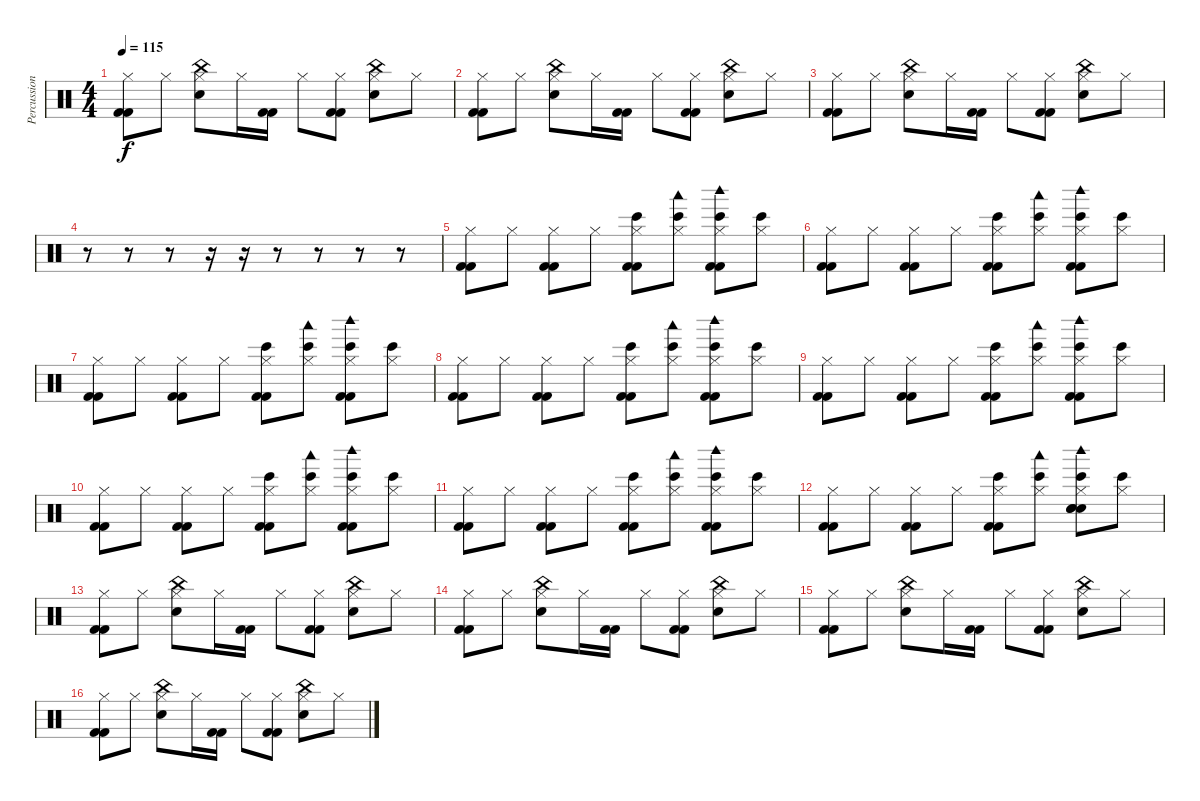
\track ("Percussion" "Percussion") {instrument percussion}
\staff {score}
\articulation defaults
\ts (4 4)
\tempo 115
\clef neutral
\ks c
("Hi-Hat (closed)" "Kick (hit) 2" "Kick (hit) 2").8{dy f} "Hi-Hat (closed)".8 ("Hi-Hat (closed)" "Electric Snare (hit)" "China (hit)").8 "Hi-Hat (closed)".16 ("Kick (hit) 2" "Kick (hit) 2").16 "Hi-Hat (closed)".8 ("Hi-Hat (closed)" "Kick (hit) 2" "Kick (hit) 2").8 ("Hi-Hat (closed)" "Electric Snare (hit)" "China (hit)").8 "Hi-Hat (closed)".8 |
("Hi-Hat (closed)" "Kick (hit) 2" "Kick (hit) 2").8 "Hi-Hat (closed)".8 ("Hi-Hat (closed)" "Electric Snare (hit)" "China (hit)").8 "Hi-Hat (closed)".16 ("Kick (hit) 2" "Kick (hit) 2").16 "Hi-Hat (closed)".8 ("Hi-Hat (closed)" "Kick (hit) 2" "Kick (hit) 2").8 ("Hi-Hat (closed)" "Electric Snare (hit)" "China (hit)").8 "Hi-Hat (closed)".8 |
("Hi-Hat (closed)" "Kick (hit) 2" "Kick (hit) 2").8 "Hi-Hat (closed)".8 ("Hi-Hat (closed)" "Electric Snare (hit)" "China (hit)").8 "Hi-Hat (closed)".16 ("Kick (hit) 2" "Kick (hit) 2").16 "Hi-Hat (closed)".8 ("Hi-Hat (closed)" "Kick (hit) 2" "Kick (hit) 2").8 ("Hi-Hat (closed)" "Electric Snare (hit)" "China (hit)").8 "Hi-Hat (closed)".8 |
r.8 r.8 r.8 r.16 r.16 r.8 r.8 r.8 r.8 |
("Hi-Hat (closed)" "Kick (hit) 2" "Kick (hit) 2").8 "Hi-Hat (closed)".8 ("Hi-Hat (closed)" "Kick (hit) 2" "Kick (hit) 2").8 "Hi-Hat (closed)".8 ("Hi-Hat (closed)" "Kick (hit) 2" "Kick (hit) 2" "Bongo High (hit)").8 ("Hi-Hat (closed)" "Bongo High (hit)" "Woodblock low (hit)").8 ("Hi-Hat (closed)" "Kick (hit) 2" "Kick (hit) 2" "Bongo High (hit)" "Woodblock high (hit)").8 ("Hi-Hat (closed)" "Bongo High (hit)").8 |
("Hi-Hat (closed)" "Kick (hit) 2" "Kick (hit) 2").8 "Hi-Hat (closed)".8 ("Hi-Hat (closed)" "Kick (hit) 2" "Kick (hit) 2").8 "Hi-Hat (closed)".8 ("Hi-Hat (closed)" "Kick (hit) 2" "Kick (hit) 2" "Bongo High (hit)").8 ("Hi-Hat (closed)" "Bongo High (hit)" "Woodblock low (hit)").8 ("Hi-Hat (closed)" "Kick (hit) 2" "Kick (hit) 2" "Bongo High (hit)" "Woodblock high (hit)").8 ("Hi-Hat (closed)" "Bongo High (hit)").8 |
("Hi-Hat (closed)" "Kick (hit) 2" "Kick (hit) 2").8 "Hi-Hat (closed)".8 ("Hi-Hat (closed)" "Kick (hit) 2" "Kick (hit) 2").8 "Hi-Hat (closed)".8 ("Hi-Hat (closed)" "Kick (hit) 2" "Kick (hit) 2" "Bongo High (hit)").8 ("Hi-Hat (closed)" "Bongo High (hit)" "Woodblock low (hit)").8 ("Hi-Hat (closed)" "Kick (hit) 2" "Kick (hit) 2" "Bongo High (hit)" "Woodblock high (hit)").8 ("Hi-Hat (closed)" "Bongo High (hit)").8 |
("Hi-Hat (closed)" "Kick (hit) 2" "Kick (hit) 2").8 "Hi-Hat (closed)".8 ("Hi-Hat (closed)" "Kick (hit) 2" "Kick (hit) 2").8 "Hi-Hat (closed)".8 ("Hi-Hat (closed)" "Kick (hit) 2" "Kick (hit) 2" "Bongo High (hit)").8 ("Hi-Hat (closed)" "Bongo High (hit)" "Woodblock low (hit)").8 ("Hi-Hat (closed)" "Kick (hit) 2" "Kick (hit) 2" "Bongo High (hit)" "Woodblock high (hit)").8 ("Hi-Hat (closed)" "Bongo High (hit)").8 |
("Hi-Hat (closed)" "Kick (hit) 2" "Kick (hit) 2").8 "Hi-Hat (closed)".8 ("Hi-Hat (closed)" "Kick (hit) 2" "Kick (hit) 2").8 "Hi-Hat (closed)".8 ("Hi-Hat (closed)" "Kick (hit) 2" "Kick (hit) 2" "Bongo High (hit)").8 ("Hi-Hat (closed)" "Bongo High (hit)" "Woodblock low (hit)").8 ("Hi-Hat (closed)" "Kick (hit) 2" "Kick (hit) 2" "Bongo High (hit)" "Woodblock high (hit)").8 ("Hi-Hat (closed)" "Bongo High (hit)").8 |
("Hi-Hat (closed)" "Kick (hit) 2" "Kick (hit) 2").8 "Hi-Hat (closed)".8 ("Hi-Hat (closed)" "Kick (hit) 2" "Kick (hit) 2").8 "Hi-Hat (closed)".8 ("Hi-Hat (closed)" "Kick (hit) 2" "Kick (hit) 2" "Bongo High (hit)").8 ("Hi-Hat (closed)" "Bongo High (hit)" "Woodblock low (hit)").8 ("Hi-Hat (closed)" "Kick (hit) 2" "Kick (hit) 2" "Bongo High (hit)" "Woodblock high (hit)").8 ("Hi-Hat (closed)" "Bongo High (hit)").8 |
("Hi-Hat (closed)" "Kick (hit) 2" "Kick (hit) 2").8 "Hi-Hat (closed)".8 ("Hi-Hat (closed)" "Kick (hit) 2" "Kick (hit) 2").8 "Hi-Hat (closed)".8 ("Hi-Hat (closed)" "Kick (hit) 2" "Kick (hit) 2" "Bongo High (hit)").8 ("Hi-Hat (closed)" "Bongo High (hit)" "Woodblock low (hit)").8 ("Hi-Hat (closed)" "Kick (hit) 2" "Kick (hit) 2" "Bongo High (hit)" "Woodblock high (hit)").8 ("Hi-Hat (closed)" "Bongo High (hit)").8 |
("Hi-Hat (closed)" "Kick (hit) 2" "Kick (hit) 2").8 "Hi-Hat (closed)".8 ("Hi-Hat (closed)" "Kick (hit) 2" "Kick (hit) 2").8 "Hi-Hat (closed)".8 ("Hi-Hat (closed)" "Kick (hit) 2" "Kick (hit) 2" "Bongo High (hit)").8 ("Hi-Hat (closed)" "Bongo High (hit)" "Woodblock low (hit)").8 ("Hi-Hat (closed)" "Electric Snare (hit)" "Electric Snare (hit)" "Bongo High (hit)" "Woodblock high (hit)" "Electric Snare (hit)").8 ("Hi-Hat (closed)" "Bongo High (hit)").8 |
("Hi-Hat (closed)" "Kick (hit) 2" "Kick (hit) 2").8 "Hi-Hat (closed)".8 ("Hi-Hat (closed)" "Electric Snare (hit)" "China (hit)").8 "Hi-Hat (closed)".16 ("Kick (hit) 2" "Kick (hit) 2").16 "Hi-Hat (closed)".8 ("Hi-Hat (closed)" "Kick (hit) 2" "Kick (hit) 2").8 ("Hi-Hat (closed)" "Electric Snare (hit)" "China (hit)").8 "Hi-Hat (closed)".8 |
("Hi-Hat (closed)" "Kick (hit) 2" "Kick (hit) 2").8 "Hi-Hat (closed)".8 ("Hi-Hat (closed)" "Electric Snare (hit)" "China (hit)").8 "Hi-Hat (closed)".16 ("Kick (hit) 2" "Kick (hit) 2").16 "Hi-Hat (closed)".8 ("Hi-Hat (closed)" "Kick (hit) 2" "Kick (hit) 2").8 ("Hi-Hat (closed)" "Electric Snare (hit)" "China (hit)").8 "Hi-Hat (closed)".8 |
("Hi-Hat (closed)" "Kick (hit) 2" "Kick (hit) 2").8 "Hi-Hat (closed)".8 ("Hi-Hat (closed)" "Electric Snare (hit)" "China (hit)").8 "Hi-Hat (closed)".16 ("Kick (hit) 2" "Kick (hit) 2").16 "Hi-Hat (closed)".8 ("Hi-Hat (closed)" "Kick (hit) 2" "Kick (hit) 2").8 ("Hi-Hat (closed)" "Electric Snare (hit)" "China (hit)").8 "Hi-Hat (closed)".8 |
("Hi-Hat (closed)" "Kick (hit) 2" "Kick (hit) 2").8 "Hi-Hat (closed)".8 ("Hi-Hat (closed)" "Electric Snare (hit)" "China (hit)").8 "Hi-Hat (closed)".16 ("Kick (hit) 2" "Kick (hit) 2").16 "Hi-Hat (closed)".8 ("Hi-Hat (closed)" "Kick (hit) 2" "Kick (hit) 2").8 ("Hi-Hat (closed)" "Electric Snare (hit)" "China (hit)").8 "Hi-Hat (closed)".8
